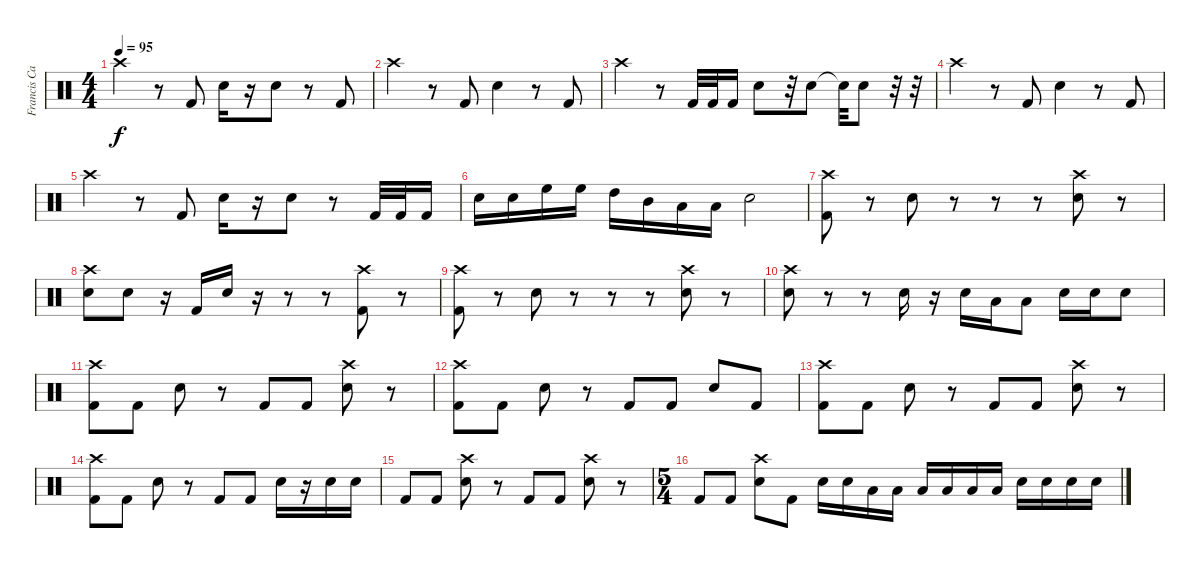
\track ("Francis Cassol" "Francis Ca") {instrument percussion}
\staff {score}
\articulation defaults
\ts (4 4)
\tempo 95
\clef neutral
\ks c "Crash high (hit)".4{dy f}
r.8 "Kick (hit) 2".8 "Electric Snare (hit)".16 r.16 "Electric Snare (hit)".8 r.8 "Kick (hit) 2".8 |
"Crash high (hit)".4 r.8 "Kick (hit) 2".8 "Electric Snare (hit)".4 r.8 "Kick (hit) 2".8 |
"Crash high (hit)".4 r.8 "Kick (hit) 2".32 "Kick (hit) 2".32 "Kick (hit) 2".16 "Electric Snare (hit)".8 r.32 "Electric Snare (hit)".8 "Snare (hit)"{t}.32 "Electric Snare (hit)".8 r.32 r.32 |
"Crash high (hit)".4 r.8 "Kick (hit) 2".8 "Electric Snare (hit)".4 r.8 "Kick (hit) 2".8 |
"Crash high (hit)".4 r.8 "Kick (hit) 2".8 "Electric Snare (hit)".16 r.16 "Electric Snare (hit)".8 r.8 "Kick (hit) 2".32 "Kick (hit) 2".32 "Kick (hit) 2".16 |
"Electric Snare (hit)".16 "Electric Snare (hit)".16 "High Floor Tom (hit)".16 "High Floor Tom (hit)".16 "High Tom (hit)".16 "Mid Tom (hit)".16 "Low Tom (hit)".16 "Low Tom (hit)".16 "Electric Snare (hit)".2 |
("Crash high (hit)" "Kick (hit) 2").8 r.8 "Electric Snare (hit)".8 r.8 r.8 r.8 ("Crash high (hit)" "Electric Snare (hit)").8 r.8 |
("Crash high (hit)" "Electric Snare (hit)").8 "Electric Snare (hit)".8 r.16 "Kick (hit) 2".16 "Electric Snare (hit)".16 r.16 r.8 r.8 ("Crash high (hit)" "Kick (hit) 2").8 r.8 |
("Crash high (hit)" "Kick (hit) 2").8 r.8 "Electric Snare (hit)".8 r.8 r.8 r.8 ("Crash high (hit)" "Electric Snare (hit)").8 r.8 |
("Crash high (hit)" "Electric Snare (hit)").8 r.8 r.8 "Electric Snare (hit)".16 r.16 "Electric Snare (hit)".16 "Low Tom (hit)".16 "Low Tom (hit)".8 "Electric Snare (hit)".16 "Electric Snare (hit)".16 "Electric Snare (hit)".8 |
("Crash high (hit)" "Kick (hit) 2").8 "Kick (hit) 2".8 "Electric Snare (hit)".8 r.8 "Kick (hit) 2".8 "Kick (hit) 2".8 ("Crash high (hit)" "Electric Snare (hit)").8 r.8 |
("Crash high (hit)" "Kick (hit) 2").8 "Kick (hit) 2".8 "Electric Snare (hit)".8 r.8 "Kick (hit) 2".8 "Kick (hit) 2".8 "Electric Snare (hit)".8 "Kick (hit) 2".8 |
("Crash high (hit)" "Kick (hit) 2").8 "Kick (hit) 2".8 "Electric Snare (hit)".8 r.8 "Kick (hit) 2".8 "Kick (hit) 2".8 ("Crash high (hit)" "Electric Snare (hit)").8 r.8 |
("Crash high (hit)" "Kick (hit) 2").8 "Kick (hit) 2".8 "Electric Snare (hit)".8 r.8 "Kick (hit) 2".8 "Kick (hit) 2".8 "Electric Snare (hit)".16 r.16 "Electric Snare (hit)".16 "Electric Snare (hit)".16 |
"Kick (hit) 2".8 "Kick (hit) 2".8 ("Crash high (hit)" "Electric Snare (hit)").8 r.8 "Kick (hit) 2".8 "Kick (hit) 2".8 ("Crash high (hit)" "Electric Snare (hit)").8 r.8 |
\ts (5 4)
"Kick (hit) 2".8 "Kick (hit) 2".8 ("Crash high (hit)" "Electric Snare (hit)").8 "Kick (hit) 2".8 "Electric Snare (hit)".16 "Electric Snare (hit)".16 "Low Tom (hit)".16 "Low Tom (hit)".16 "Low Tom (hit)".16 "Low Tom (hit)".16 "Low Tom (hit)".16 "Low Tom (hit)".16 "Electric Snare (hit)".16 "Electric Snare (hit)".16 "Electric Snare (hit)".16 "Electric Snare (hit)".16
